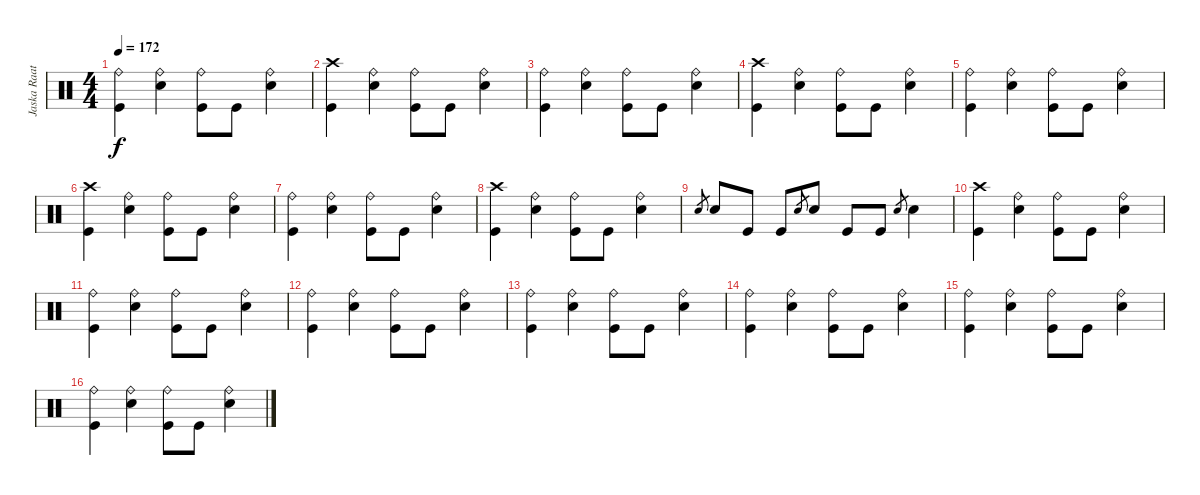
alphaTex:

\track ("Jaska Raatikainen" "Jaska Raat") {instrument percussion}
\staff {score}
\articulation defaults
\ts (4 4)
\tempo 172
\clef neutral
\ks c
("Ride (bell)" "Kick (hit)").4{dy f} ("Ride (bell)" "Snare (hit) 2").4 ("Ride (bell)" "Kick (hit)").8 "Kick (hit)".8 ("Ride (bell)" "Snare (hit) 2").4 |
("Crash high (hit)" "Kick (hit)").4 ("Ride (bell)" "Snare (hit) 2").4 ("Ride (bell)" "Kick (hit)").8 "Kick (hit)".8 ("Ride (bell)" "Snare (hit) 2").4 |
("Ride (bell)" "Kick (hit)").4 ("Ride (bell)" "Snare (hit) 2").4 ("Ride (bell)" "Kick (hit)").8 "Kick (hit)".8 ("Ride (bell)" "Snare (hit) 2").4 |
("Crash high (hit)" "Kick (hit)").4 ("Ride (bell)" "Snare (hit) 2").4 ("Ride (bell)" "Kick (hit)").8 "Kick (hit)".8 ("Ride (bell)" "Snare (hit) 2").4 |
("Ride (bell)" "Kick (hit)").4 ("Ride (bell)" "Snare (hit) 2").4 ("Ride (bell)" "Kick (hit)").8 "Kick (hit)".8 ("Ride (bell)" "Snare (hit) 2").4 |
("Crash high (hit)" "Kick (hit)").4 ("Ride (bell)" "Snare (hit) 2").4 ("Ride (bell)" "Kick (hit)").8 "Kick (hit)".8 ("Ride (bell)" "Snare (hit) 2").4 |
("Ride (bell)" "Kick (hit)").4 ("Ride (bell)" "Snare (hit) 2").4 ("Ride (bell)" "Kick (hit)").8 "Kick (hit)".8 ("Ride (bell)" "Snare (hit) 2").4 |
("Crash high (hit)" "Kick (hit)").4 ("Ride (bell)" "Snare (hit) 2").4 ("Ride (bell)" "Kick (hit)").8 "Kick (hit)".8 ("Ride (bell)" "Snare (hit) 2").4 |
"Snare (hit) 2".8{gr} "Snare (hit) 2".8 "Kick (hit)".8 "Kick (hit)".8 "Snare (hit) 2".8{gr} "Snare (hit) 2".8 "Kick (hit)".8 "Kick (hit)".8 "Snare (hit) 2".8{gr} "Snare (hit) 2".4 |
("Crash high (hit)" "Kick (hit)").4 ("Ride (bell)" "Snare (hit) 2").4 ("Ride (bell)" "Kick (hit)").8 "Kick (hit)".8 ("Ride (bell)" "Snare (hit) 2").4 |
("Ride (bell)" "Kick (hit)").4 ("Ride (bell)" "Snare (hit) 2").4 ("Ride (bell)" "Kick (hit)").8 "Kick (hit)".8 ("Ride (bell)" "Snare (hit) 2").4 |
("Ride (bell)" "Kick (hit)").4 ("Ride (bell)" "Snare (hit) 2").4 ("Ride (bell)" "Kick (hit)").8 "Kick (hit)".8 ("Ride (bell)" "Snare (hit) 2").4 |
("Ride (bell)" "Kick (hit)").4 ("Ride (bell)" "Snare (hit) 2").4 ("Ride (bell)" "Kick (hit)").8 "Kick (hit)".8 ("Ride (bell)" "Snare (hit) 2").4 |
("Ride (bell)" "Kick (hit)").4 ("Ride (bell)" "Snare (hit) 2").4 ("Ride (bell)" "Kick (hit)").8 "Kick (hit)".8 ("Ride (bell)" "Snare (hit) 2").4 |
("Ride (bell)" "Kick (hit)").4 ("Ride (bell)" "Snare (hit) 2").4 ("Ride (bell)" "Kick (hit)").8 "Kick (hit)".8 ("Ride (bell)" "Snare (hit) 2").4 |
("Ride (bell)" "Kick (hit)").4 ("Ride (bell)" "Snare (hit) 2").4 ("Ride (bell)" "Kick (hit)").8 "Kick (hit)".8 ("Ride (bell)" "Snare (hit) 2").4
